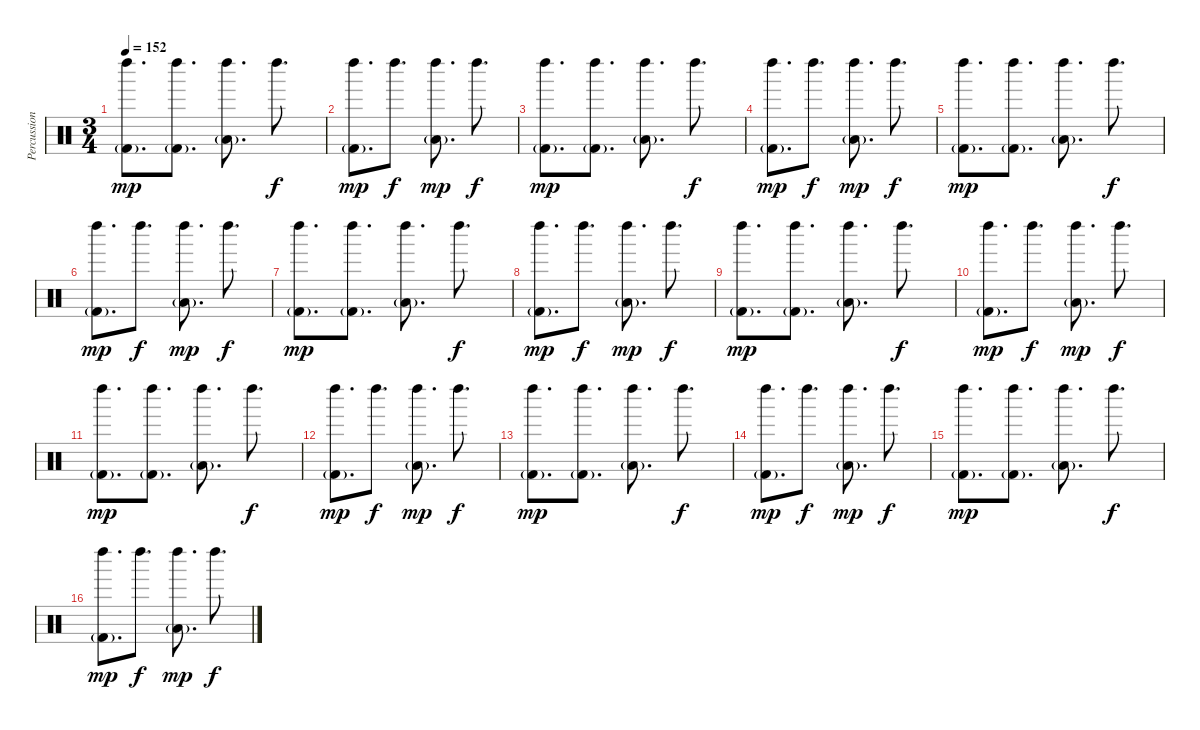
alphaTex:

\track ("Percussion" "Percussion") {instrument percussion}
\staff {score}
\articulation defaults
\ts (3 4)
\tempo 152
\clef neutral
\ks c
("Left Maraca (hit)" "Kick (hit) 2"{g}).8{d dy mp} ("Left Maraca (hit)" "Kick (hit) 2"{g}).8{d} ("Left Maraca (hit)" "Low Tom (hit)"{g}).8{d} "Left Maraca (hit)".8{d dy f} |
("Left Maraca (hit)" "Kick (hit) 2"{g}).8{d dy mp} "Left Maraca (hit)".8{d dy f} ("Left Maraca (hit)" "Low Tom (hit)"{g}).8{d dy mp} "Left Maraca (hit)".8{d dy f} |
("Left Maraca (hit)" "Kick (hit) 2"{g}).8{d dy mp} ("Left Maraca (hit)" "Kick (hit) 2"{g}).8{d} ("Left Maraca (hit)" "Low Tom (hit)"{g}).8{d} "Left Maraca (hit)".8{d dy f} |
("Left Maraca (hit)" "Kick (hit) 2"{g}).8{d dy mp} "Left Maraca (hit)".8{d dy f} ("Left Maraca (hit)" "Low Tom (hit)"{g}).8{d dy mp} "Left Maraca (hit)".8{d dy f} |
("Left Maraca (hit)" "Kick (hit) 2"{g}).8{d dy mp} ("Left Maraca (hit)" "Kick (hit) 2"{g}).8{d} ("Left Maraca (hit)" "Low Tom (hit)"{g}).8{d} "Left Maraca (hit)".8{d dy f} |
("Left Maraca (hit)" "Kick (hit) 2"{g}).8{d dy mp} "Left Maraca (hit)".8{d dy f} ("Left Maraca (hit)" "Low Tom (hit)"{g}).8{d dy mp} "Left Maraca (hit)".8{d dy f} |
("Left Maraca (hit)" "Kick (hit) 2"{g}).8{d dy mp} ("Left Maraca (hit)" "Kick (hit) 2"{g}).8{d} ("Left Maraca (hit)" "Low Tom (hit)"{g}).8{d} "Left Maraca (hit)".8{d dy f} |
("Left Maraca (hit)" "Kick (hit) 2"{g}).8{d dy mp} "Left Maraca (hit)".8{d dy f} ("Left Maraca (hit)" "Low Tom (hit)"{g}).8{d dy mp} "Left Maraca (hit)".8{d dy f} |
("Left Maraca (hit)" "Kick (hit) 2"{g}).8{d dy mp} ("Left Maraca (hit)" "Kick (hit) 2"{g}).8{d} ("Left Maraca (hit)" "Low Tom (hit)"{g}).8{d} "Left Maraca (hit)".8{d dy f} |
("Left Maraca (hit)" "Kick (hit) 2"{g}).8{d dy mp} "Left Maraca (hit)".8{d dy f} ("Left Maraca (hit)" "Low Tom (hit)"{g}).8{d dy mp} "Left Maraca (hit)".8{d dy f} |
("Left Maraca (hit)" "Kick (hit) 2"{g}).8{d dy mp} ("Left Maraca (hit)" "Kick (hit) 2"{g}).8{d} ("Left Maraca (hit)" "Low Tom (hit)"{g}).8{d} "Left Maraca (hit)".8{d dy f} |
("Left Maraca (hit)" "Kick (hit) 2"{g}).8{d dy mp} "Left Maraca (hit)".8{d dy f} ("Left Maraca (hit)" "Low Tom (hit)"{g}).8{d dy mp} "Left Maraca (hit)".8{d dy f} |
("Left Maraca (hit)" "Kick (hit) 2"{g}).8{d dy mp} ("Left Maraca (hit)" "Kick (hit) 2"{g}).8{d} ("Left Maraca (hit)" "Low Tom (hit)"{g}).8{d} "Left Maraca (hit)".8{d dy f} |
("Left Maraca (hit)" "Kick (hit) 2"{g}).8{d dy mp} "Left Maraca (hit)".8{d dy f} ("Left Maraca (hit)" "Low Tom (hit)"{g}).8{d dy mp} "Left Maraca (hit)".8{d dy f} |
("Left Maraca (hit)" "Kick (hit) 2"{g}).8{d dy mp} ("Left Maraca (hit)" "Kick (hit) 2"{g}).8{d} ("Left Maraca (hit)" "Low Tom (hit)"{g}).8{d} "Left Maraca (hit)".8{d dy f} |
("Left Maraca (hit)" "Kick (hit) 2"{g}).8{d dy mp} "Left Maraca (hit)".8{d dy f} ("Left Maraca (hit)" "Low Tom (hit)"{g}).8{d dy mp} "Left Maraca (hit)".8{d dy f}
